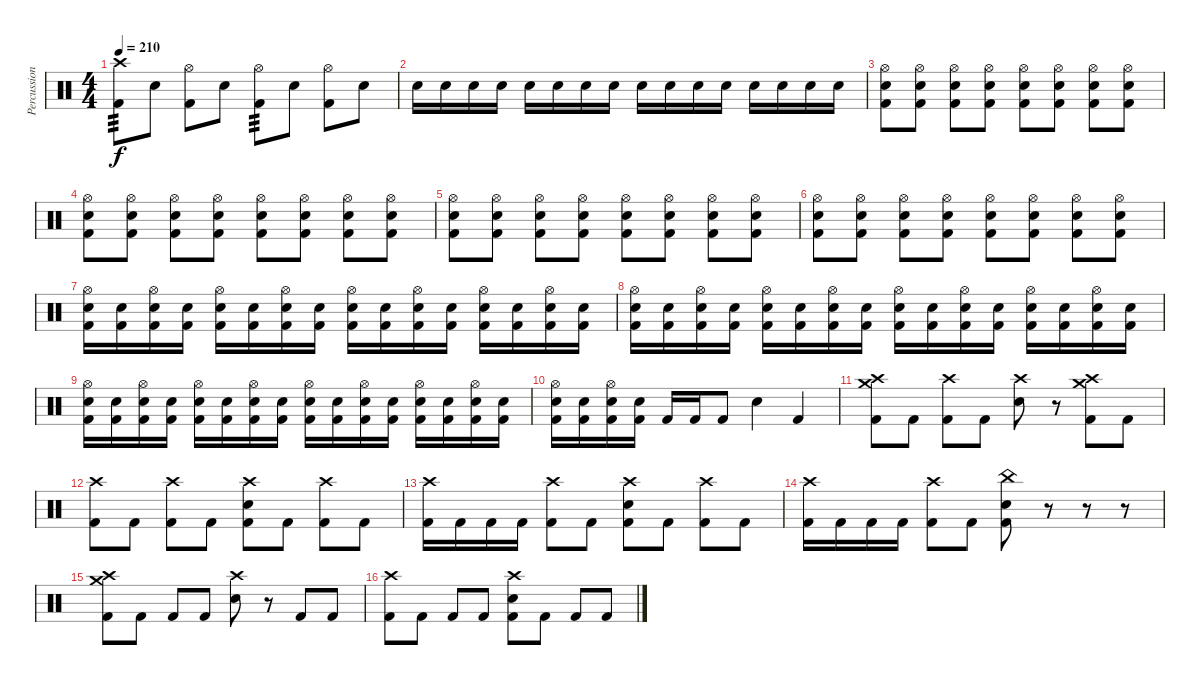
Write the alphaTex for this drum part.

\track ("Percussion" "Percussion") {instrument percussion}
\staff {score}
\articulation defaults
\ts (4 4)
\tempo 210
\clef neutral
\ks c
("Crash high (hit)" "Kick (hit) 2").8{tp 3 dy f} "Electric Snare (hit)".8 ("Hi-Hat (open)" "Kick (hit) 2").8 "Electric Snare (hit)".8 ("Hi-Hat (open)" "Kick (hit) 2").8{tp 3} "Electric Snare (hit)".8 ("Hi-Hat (open)" "Kick (hit) 2").8 "Electric Snare (hit)".8 |
"Electric Snare (hit)".16 "Electric Snare (hit)".16 "Electric Snare (hit)".16 "Electric Snare (hit)".16 "Electric Snare (hit)".16 "Electric Snare (hit)".16 "Electric Snare (hit)".16 "Electric Snare (hit)".16 "Electric Snare (hit)".16 "Electric Snare (hit)".16 "Electric Snare (hit)".16 "Electric Snare (hit)".16 "Electric Snare (hit)".16 "Electric Snare (hit)".16 "Electric Snare (hit)".16 "Electric Snare (hit)".16 |
("Hi-Hat (open)" "Electric Snare (hit)" "Kick (hit) 2").8 ("Hi-Hat (open)" "Electric Snare (hit)" "Kick (hit) 2").8 ("Hi-Hat (open)" "Electric Snare (hit)" "Kick (hit) 2").8 ("Hi-Hat (open)" "Electric Snare (hit)" "Kick (hit) 2").8 ("Hi-Hat (open)" "Electric Snare (hit)" "Kick (hit) 2").8 ("Hi-Hat (open)" "Electric Snare (hit)" "Kick (hit) 2").8 ("Hi-Hat (open)" "Electric Snare (hit)" "Kick (hit) 2").8 ("Hi-Hat (open)" "Electric Snare (hit)" "Kick (hit) 2").8 |
("Hi-Hat (open)" "Electric Snare (hit)" "Kick (hit) 2").8 ("Hi-Hat (open)" "Electric Snare (hit)" "Kick (hit) 2").8 ("Hi-Hat (open)" "Electric Snare (hit)" "Kick (hit) 2").8 ("Hi-Hat (open)" "Electric Snare (hit)" "Kick (hit) 2").8 ("Hi-Hat (open)" "Electric Snare (hit)" "Kick (hit) 2").8 ("Hi-Hat (open)" "Electric Snare (hit)" "Kick (hit) 2").8 ("Hi-Hat (open)" "Electric Snare (hit)" "Kick (hit) 2").8 ("Hi-Hat (open)" "Electric Snare (hit)" "Kick (hit) 2").8 |
("Hi-Hat (open)" "Electric Snare (hit)" "Kick (hit) 2").8 ("Hi-Hat (open)" "Electric Snare (hit)" "Kick (hit) 2").8 ("Hi-Hat (open)" "Electric Snare (hit)" "Kick (hit) 2").8 ("Hi-Hat (open)" "Electric Snare (hit)" "Kick (hit) 2").8 ("Hi-Hat (open)" "Electric Snare (hit)" "Kick (hit) 2").8 ("Hi-Hat (open)" "Electric Snare (hit)" "Kick (hit) 2").8 ("Hi-Hat (open)" "Electric Snare (hit)" "Kick (hit) 2").8 ("Hi-Hat (open)" "Electric Snare (hit)" "Kick (hit) 2").8 |
("Hi-Hat (open)" "Electric Snare (hit)" "Kick (hit) 2").8 ("Hi-Hat (open)" "Electric Snare (hit)" "Kick (hit) 2").8 ("Hi-Hat (open)" "Electric Snare (hit)" "Kick (hit) 2").8 ("Hi-Hat (open)" "Electric Snare (hit)" "Kick (hit) 2").8 ("Hi-Hat (open)" "Electric Snare (hit)" "Kick (hit) 2").8 ("Hi-Hat (open)" "Electric Snare (hit)" "Kick (hit) 2").8 ("Hi-Hat (open)" "Electric Snare (hit)" "Kick (hit) 2").8 ("Hi-Hat (open)" "Electric Snare (hit)" "Kick (hit) 2").8 |
("Hi-Hat (open)" "Electric Snare (hit)" "Kick (hit) 2").16 ("Electric Snare (hit)" "Kick (hit) 2").16 ("Hi-Hat (open)" "Electric Snare (hit)" "Kick (hit) 2").16 ("Electric Snare (hit)" "Kick (hit) 2").16 ("Hi-Hat (open)" "Electric Snare (hit)" "Kick (hit) 2").16 ("Electric Snare (hit)" "Kick (hit) 2").16 ("Hi-Hat (open)" "Electric Snare (hit)" "Kick (hit) 2").16 ("Electric Snare (hit)" "Kick (hit) 2").16 ("Hi-Hat (open)" "Electric Snare (hit)" "Kick (hit) 2").16 ("Electric Snare (hit)" "Kick (hit) 2").16 ("Hi-Hat (open)" "Electric Snare (hit)" "Kick (hit) 2").16 ("Electric Snare (hit)" "Kick (hit) 2").16 ("Hi-Hat (open)" "Electric Snare (hit)" "Kick (hit) 2").16 ("Electric Snare (hit)" "Kick (hit) 2").16 ("Hi-Hat (open)" "Electric Snare (hit)" "Kick (hit) 2").16 ("Electric Snare (hit)" "Kick (hit) 2").16 |
("Hi-Hat (open)" "Electric Snare (hit)" "Kick (hit) 2").16 ("Electric Snare (hit)" "Kick (hit) 2").16 ("Hi-Hat (open)" "Electric Snare (hit)" "Kick (hit) 2").16 ("Electric Snare (hit)" "Kick (hit) 2").16 ("Hi-Hat (open)" "Electric Snare (hit)" "Kick (hit) 2").16 ("Electric Snare (hit)" "Kick (hit) 2").16 ("Hi-Hat (open)" "Electric Snare (hit)" "Kick (hit) 2").16 ("Electric Snare (hit)" "Kick (hit) 2").16 ("Hi-Hat (open)" "Electric Snare (hit)" "Kick (hit) 2").16 ("Electric Snare (hit)" "Kick (hit) 2").16 ("Hi-Hat (open)" "Electric Snare (hit)" "Kick (hit) 2").16 ("Electric Snare (hit)" "Kick (hit) 2").16 ("Hi-Hat (open)" "Electric Snare (hit)" "Kick (hit) 2").16 ("Electric Snare (hit)" "Kick (hit) 2").16 ("Hi-Hat (open)" "Electric Snare (hit)" "Kick (hit) 2").16 ("Electric Snare (hit)" "Kick (hit) 2").16 |
("Hi-Hat (open)" "Electric Snare (hit)" "Kick (hit) 2").16 ("Electric Snare (hit)" "Kick (hit) 2").16 ("Hi-Hat (open)" "Electric Snare (hit)" "Kick (hit) 2").16 ("Electric Snare (hit)" "Kick (hit) 2").16 ("Hi-Hat (open)" "Electric Snare (hit)" "Kick (hit) 2").16 ("Electric Snare (hit)" "Kick (hit) 2").16 ("Hi-Hat (open)" "Electric Snare (hit)" "Kick (hit) 2").16 ("Electric Snare (hit)" "Kick (hit) 2").16 ("Hi-Hat (open)" "Electric Snare (hit)" "Kick (hit) 2").16 ("Electric Snare (hit)" "Kick (hit) 2").16 ("Hi-Hat (open)" "Electric Snare (hit)" "Kick (hit) 2").16 ("Electric Snare (hit)" "Kick (hit) 2").16 ("Hi-Hat (open)" "Electric Snare (hit)" "Kick (hit) 2").16 ("Electric Snare (hit)" "Kick (hit) 2").16 ("Hi-Hat (open)" "Electric Snare (hit)" "Kick (hit) 2").16 ("Electric Snare (hit)" "Kick (hit) 2").16 |
("Hi-Hat (open)" "Electric Snare (hit)" "Kick (hit) 2").16 ("Electric Snare (hit)" "Kick (hit) 2").16 ("Hi-Hat (open)" "Electric Snare (hit)" "Kick (hit) 2").16 ("Electric Snare (hit)" "Kick (hit) 2").16 "Kick (hit) 2".16 "Kick (hit) 2".16 "Kick (hit) 2".8 "Electric Snare (hit)".4 "Kick (hit) 2".4 |
("Crash medium (hit)" "Crash high (hit)" "Kick (hit) 2").8 "Kick (hit) 2".8 ("Crash high (hit)" "Kick (hit) 2").8 "Kick (hit) 2".8 ("Crash high (hit)" "Electric Snare (hit)").8 r.8 ("Crash medium (hit)" "Crash high (hit)" "Kick (hit) 2").8 "Kick (hit) 2".8 |
("Crash high (hit)" "Kick (hit) 2").8 "Kick (hit) 2".8 ("Crash high (hit)" "Kick (hit) 2").8 "Kick (hit) 2".8 ("Crash high (hit)" "Electric Snare (hit)" "Kick (hit) 2").8 "Kick (hit) 2".8 ("Crash high (hit)" "Kick (hit) 2").8 "Kick (hit) 2".8 |
("Crash high (hit)" "Kick (hit) 2").16 "Kick (hit) 2".16 "Kick (hit) 2".16 "Kick (hit) 2".16 ("Crash high (hit)" "Kick (hit) 2").8 "Kick (hit) 2".8 ("Crash high (hit)" "Electric Snare (hit)" "Kick (hit) 2").8 "Kick (hit) 2".8 ("Crash high (hit)" "Kick (hit) 2").8 "Kick (hit) 2".8 |
("Crash high (hit)" "Kick (hit) 2").16 "Kick (hit) 2".16 "Kick (hit) 2".16 "Kick (hit) 2".16 ("Crash high (hit)" "Kick (hit) 2").8 "Kick (hit) 2".8 ("China (hit)" "Electric Snare (hit)" "Kick (hit) 2").8 r.8 r.8 r.8 |
("Crash medium (hit)" "Crash high (hit)" "Kick (hit) 2").8 "Kick (hit) 2".8 "Kick (hit) 2".8 "Kick (hit) 2".8 ("Crash high (hit)" "Electric Snare (hit)").8 r.8 "Kick (hit) 2".8 "Kick (hit) 2".8 |
("Crash high (hit)" "Kick (hit) 2").8 "Kick (hit) 2".8 "Kick (hit) 2".8 "Kick (hit) 2".8 ("Crash high (hit)" "Electric Snare (hit)" "Kick (hit) 2").8 "Kick (hit) 2".8 "Kick (hit) 2".8 "Kick (hit) 2".8
